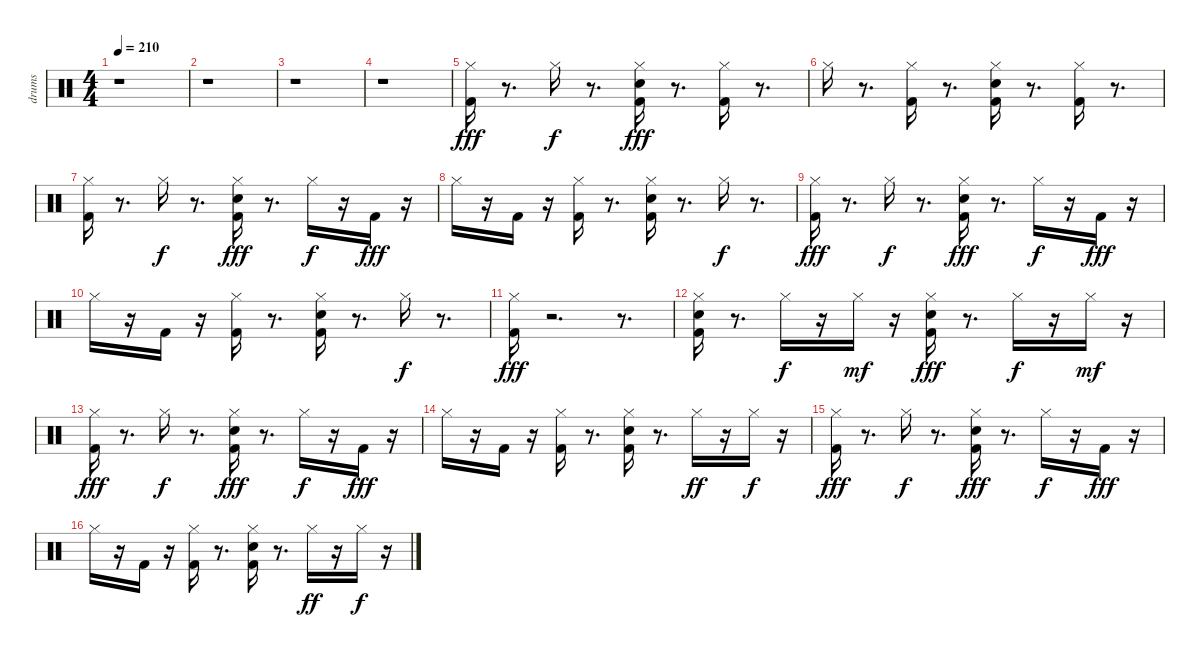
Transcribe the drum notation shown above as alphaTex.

\track ("drums" "drums") {instrument percussion}
\staff {score}
\articulation defaults
\ts (4 4)
\tempo 210
\clef neutral
\ks c
r.1{dy fff} |
r.1 |
r.1 |
r.1 |
("Hi-Hat (closed)" "Kick (hit) 2").16 r.8{d} "Hi-Hat (closed)".16{dy f} r.8{d} ("Hi-Hat (closed)" "Electric Snare (hit)" "Kick (hit) 2").16{dy fff} r.8{d} ("Hi-Hat (closed)" "Kick (hit) 2").16 r.8{d} |
"Hi-Hat (closed)".16 r.8{d} ("Hi-Hat (closed)" "Kick (hit) 2").16 r.8{d} ("Hi-Hat (closed)" "Electric Snare (hit)" "Kick (hit) 2").16 r.8{d} ("Hi-Hat (closed)" "Kick (hit) 2").16 r.8{d} |
("Kick (hit) 2" "Hi-Hat (closed)").16 r.8{d} "Hi-Hat (closed)".16{dy f} r.8{d} ("Hi-Hat (closed)" "Electric Snare (hit)" "Kick (hit) 2").16{dy fff} r.8{d} "Hi-Hat (closed)".16{dy f} r.16 "Kick (hit) 2".16{dy fff} r.16 |
"Hi-Hat (closed)".16 r.16 "Kick (hit) 2".16 r.16 ("Hi-Hat (closed)" "Kick (hit) 2").16 r.8{d} ("Hi-Hat (closed)" "Electric Snare (hit)" "Kick (hit) 2").16 r.8{d} "Hi-Hat (closed)".16{dy f} r.8{d} |
("Hi-Hat (closed)" "Kick (hit) 2").16{dy fff} r.8{d} "Hi-Hat (closed)".16{dy f} r.8{d} ("Hi-Hat (closed)" "Electric Snare (hit)" "Kick (hit) 2").16{dy fff} r.8{d} "Hi-Hat (closed)".16{dy f} r.16 "Kick (hit) 2".16{dy fff} r.16 |
"Hi-Hat (closed)".16 r.16 "Kick (hit) 2".16 r.16 ("Hi-Hat (closed)" "Kick (hit) 2").16 r.8{d} ("Hi-Hat (closed)" "Electric Snare (hit)" "Kick (hit) 2").16 r.8{d} "Hi-Hat (closed)".16{dy f} r.8{d} |
("Kick (hit) 2" "Hi-Hat (closed)").16{dy fff} r.2{d} r.8{d} |
("Hi-Hat (closed)" "Electric Snare (hit)" "Kick (hit) 2").16 r.8{d} "Hi-Hat (closed)".16{dy f} r.16 "Hi-Hat (closed)".16{dy mf} r.16 ("Kick (hit) 2" "Electric Snare (hit)" "Hi-Hat (closed)").16{dy fff} r.8{d} "Hi-Hat (closed)".16{dy f} r.16 "Hi-Hat (closed)".16{dy mf} r.16 |
("Hi-Hat (closed)" "Kick (hit) 2").16{dy fff} r.8{d} "Hi-Hat (closed)".16{dy f} r.8{d} ("Electric Snare (hit)" "Hi-Hat (closed)" "Kick (hit) 2").16{dy fff} r.8{d} "Hi-Hat (closed)".16{dy f} r.16 "Kick (hit) 2".16{dy fff} r.16 |
"Hi-Hat (closed)".16 r.16 "Kick (hit) 2".16 r.16 ("Hi-Hat (closed)" "Kick (hit) 2").16 r.8{d} ("Electric Snare (hit)" "Hi-Hat (closed)" "Kick (hit) 2").16 r.8{d} "Hi-Hat (closed)".16{dy ff} r.16 "Hi-Hat (closed)".16{dy f} r.16 |
("Hi-Hat (closed)" "Kick (hit) 2").16{dy fff} r.8{d} "Hi-Hat (closed)".16{dy f} r.8{d} ("Electric Snare (hit)" "Hi-Hat (closed)" "Kick (hit) 2").16{dy fff} r.8{d} "Hi-Hat (closed)".16{dy f} r.16 "Kick (hit) 2".16{dy fff} r.16 |
"Hi-Hat (closed)".16 r.16 "Kick (hit) 2".16 r.16 ("Hi-Hat (closed)" "Kick (hit) 2").16 r.8{d} ("Electric Snare (hit)" "Hi-Hat (closed)" "Kick (hit) 2").16 r.8{d} "Hi-Hat (closed)".16{dy ff} r.16 "Hi-Hat (closed)".16{dy f} r.16
